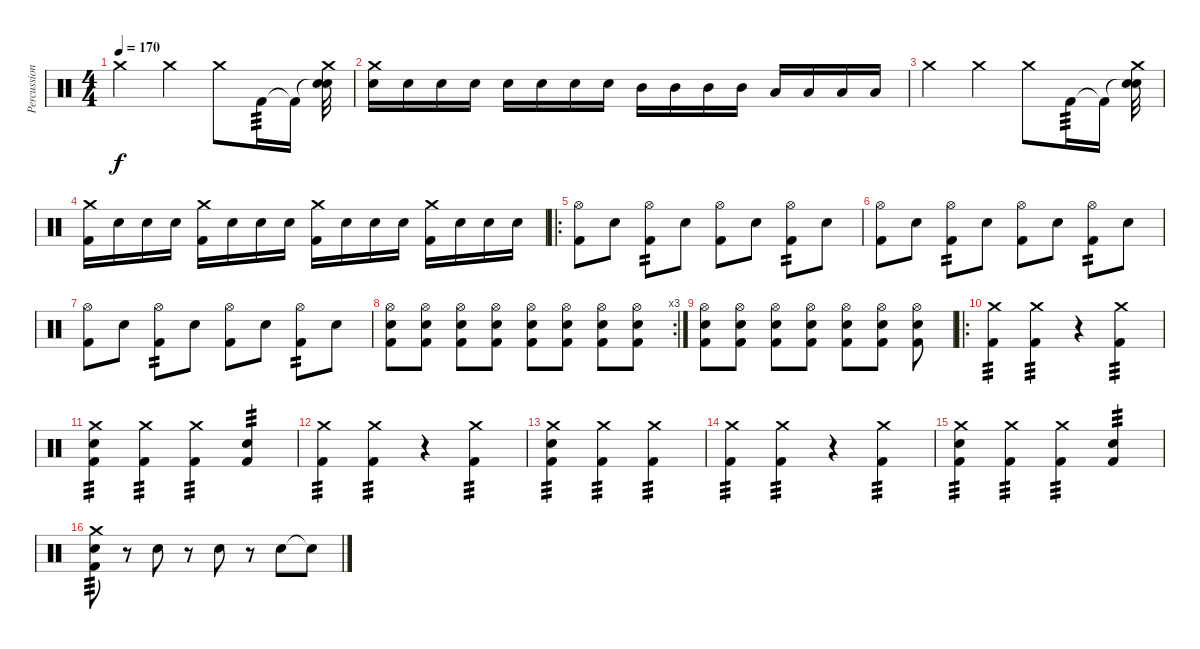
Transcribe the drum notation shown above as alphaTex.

\track ("Percussion" "Percussion") {instrument percussion}
\staff {score}
\articulation defaults
\ts (4 4)
\tempo 170
\clef neutral
\ks c "Crash medium (hit)".4{dy f} "Crash medium (hit)".4 "Crash medium (hit)".8 "Kick (hit) 2".16{tp 3} "Kick (hit) 2"{t}.16
("Snare (hit)"{t} "Electric Snare (hit)" "Crash medium (hit)").32 |
("Electric Snare (hit)" "Crash medium (hit)").16 "Electric Snare (hit)".16 "Electric Snare (hit)".16 "Electric Snare (hit)".16 "Electric Snare (hit)".16 "Electric Snare (hit)".16 "Electric Snare (hit)".16 "Electric Snare (hit)".16 "Mid Tom (hit)".16 "Mid Tom (hit)".16 "Mid Tom (hit)".16 "Mid Tom (hit)".16 "Low Tom (hit)".16 "Low Tom (hit)".16 "Low Tom (hit)".16 "Low Tom (hit)".16 |
"Crash medium (hit)".4 "Crash medium (hit)".4 "Crash medium (hit)".8 "Kick (hit) 2".16{tp 3} "Kick (hit) 2"{t}.16 ("Snare (hit)"{t} "Electric Snare (hit)" "Crash medium (hit)").32 |
("Kick (hit) 2" "Crash medium (hit)").16 "Electric Snare (hit)".16 "Electric Snare (hit)".16 "Electric Snare (hit)".16 ("Kick (hit) 2" "Crash medium (hit)").16 "Electric Snare (hit)".16 "Electric Snare (hit)".16 "Electric Snare (hit)".16 ("Kick (hit) 2" "Crash medium (hit)").16 "Electric Snare (hit)".16 "Electric Snare (hit)".16 "Electric Snare (hit)".16 ("Kick (hit) 2" "Crash medium (hit)").16 "Electric Snare (hit)".16 "Electric Snare (hit)".16 "Electric Snare (hit)".16 |
\ro
("Kick (hit) 2" "Hi-Hat (open)").8 "Electric Snare (hit)".8 ("Kick (hit) 2" "Hi-Hat (open)").8{tp 2} "Electric Snare (hit)".8 ("Kick (hit) 2" "Hi-Hat (open)").8 "Electric Snare (hit)".8 ("Kick (hit) 2" "Hi-Hat (open)").8{tp 2} "Electric Snare (hit)".8 |
("Kick (hit) 2" "Hi-Hat (open)").8 "Electric Snare (hit)".8 ("Kick (hit) 2" "Hi-Hat (open)").8{tp 2} "Electric Snare (hit)".8 ("Kick (hit) 2" "Hi-Hat (open)").8 "Electric Snare (hit)".8 ("Kick (hit) 2" "Hi-Hat (open)").8{tp 2} "Electric Snare (hit)".8 |
("Kick (hit) 2" "Hi-Hat (open)").8 "Electric Snare (hit)".8 ("Kick (hit) 2" "Hi-Hat (open)").8{tp 2} "Electric Snare (hit)".8 ("Kick (hit) 2" "Hi-Hat (open)").8 "Electric Snare (hit)".8 ("Kick (hit) 2" "Hi-Hat (open)").8{tp 2} "Electric Snare (hit)".8 |
\rc 3
("Kick (hit) 2" "Electric Snare (hit)" "Hi-Hat (open)").8 ("Kick (hit) 2" "Electric Snare (hit)" "Hi-Hat (open)").8 ("Kick (hit) 2" "Electric Snare (hit)" "Hi-Hat (open)").8 ("Kick (hit) 2" "Electric Snare (hit)" "Hi-Hat (open)").8 ("Kick (hit) 2" "Electric Snare (hit)" "Hi-Hat (open)").8 ("Kick (hit) 2" "Electric Snare (hit)" "Hi-Hat (open)").8 ("Kick (hit) 2" "Electric Snare (hit)" "Hi-Hat (open)").8 ("Kick (hit) 2" "Electric Snare (hit)" "Hi-Hat (open)").8 |
("Kick (hit) 2" "Electric Snare (hit)" "Hi-Hat (open)").8 ("Kick (hit) 2" "Electric Snare (hit)" "Hi-Hat (open)").8 ("Kick (hit) 2" "Electric Snare (hit)" "Hi-Hat (open)").8 ("Kick (hit) 2" "Electric Snare (hit)" "Hi-Hat (open)").8 ("Kick (hit) 2" "Electric Snare (hit)" "Hi-Hat (open)").8 ("Kick (hit) 2" "Electric Snare (hit)" "Hi-Hat (open)").8 ("Kick (hit) 2" "Electric Snare (hit)" "Hi-Hat (open)").8 |
\ro
("Kick (hit) 2" "Crash medium (hit)").4{tp 3} ("Kick (hit) 2" "Crash medium (hit)").4{tp 3} r.4 ("Kick (hit) 2" "Crash medium (hit)").4{tp 3} |
("Kick (hit) 2" "Electric Snare (hit)" "Crash medium (hit)").4{tp 3} ("Kick (hit) 2" "Crash medium (hit)").4{tp 3} ("Kick (hit) 2" "Crash medium (hit)").4{tp 3} ("Kick (hit) 2" "Electric Snare (hit)").4{tp 3} |
("Kick (hit) 2" "Crash medium (hit)").4{tp 3} ("Kick (hit) 2" "Crash medium (hit)").4{tp 3} r.4 ("Kick (hit) 2" "Crash medium (hit)").4{tp 3} |
("Kick (hit) 2" "Electric Snare (hit)" "Crash medium (hit)").4{tp 3} ("Kick (hit) 2" "Crash medium (hit)").4{tp 3} ("Kick (hit) 2" "Crash medium (hit)").4{tp 3} |
("Kick (hit) 2" "Crash medium (hit)").4{tp 3} ("Kick (hit) 2" "Crash medium (hit)").4{tp 3} r.4 ("Kick (hit) 2" "Crash medium (hit)").4{tp 3} |
("Kick (hit) 2" "Electric Snare (hit)" "Crash medium (hit)").4{tp 3} ("Kick (hit) 2" "Crash medium (hit)").4{tp 3} ("Kick (hit) 2" "Crash medium (hit)").4{tp 3} ("Kick (hit) 2" "Electric Snare (hit)").4{tp 3} |
("Kick (hit) 2" "Electric Snare (hit)" "Crash medium (hit)").8{tp 3} r.8 "Electric Snare (hit)".8 r.8 "Electric Snare (hit)".8 r.8 "Electric Snare (hit)".8 "Snare (hit)"{t}.8
